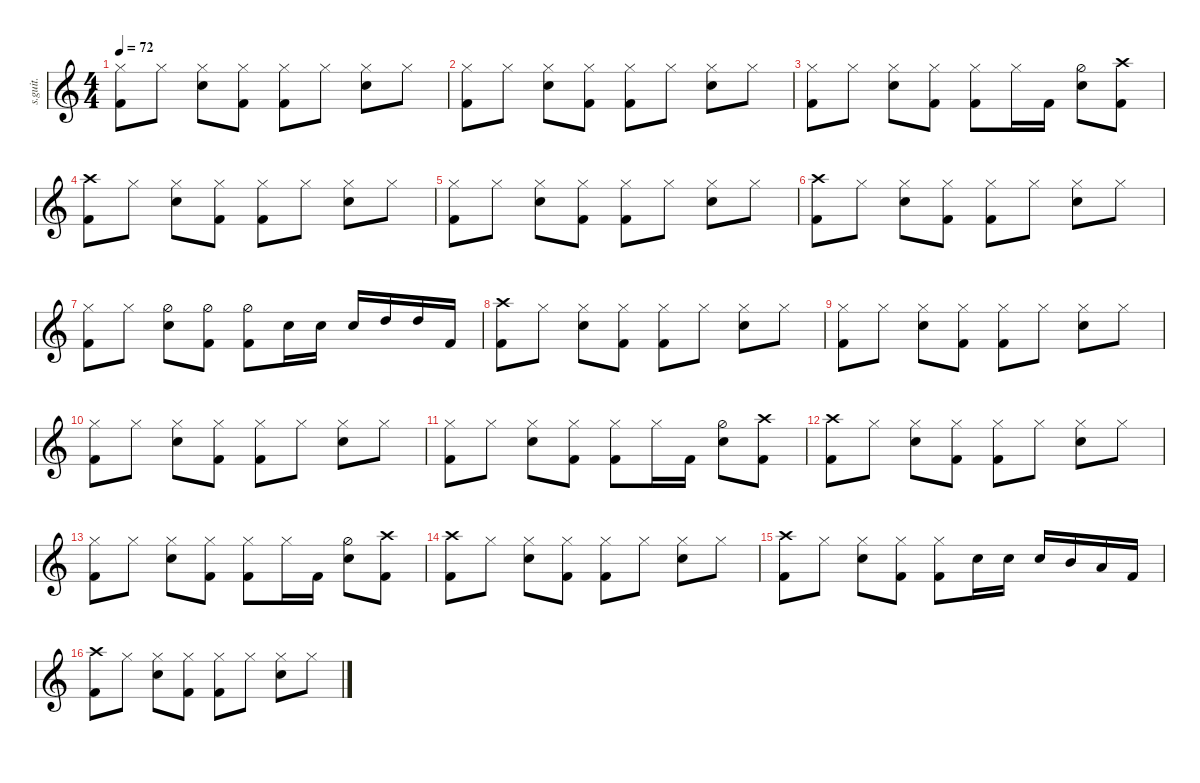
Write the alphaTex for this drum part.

\defaultSystemsLayout 4
\hideDynamics
\bracketExtendMode nobrackets
\track ("Ian Thomas" "s.guit.") {instrument percussion}
\staff {score}
\articulation defaults
\ts (4 4)
\tempo 72
\clef g2
\ks c
("Hi-Hat (closed)" "Kick (hit) 2").8{lyrics (0 "") lyrics (1 "") lyrics (2 "") lyrics (3 "") lyrics (4 "") dy f} "Hi-Hat (closed)".8{lyrics (0 "") lyrics (1 "") lyrics (2 "") lyrics (3 "") lyrics (4 "")} ("Hi-Hat (closed)" "Snare (hit) 2").8{lyrics (0 "") lyrics (1 "") lyrics (2 "") lyrics (3 "") lyrics (4 "")} ("Hi-Hat (closed)" "Kick (hit) 2").8{lyrics (0 "") lyrics (1 "") lyrics (2 "") lyrics (3 "") lyrics (4 "")} ("Hi-Hat (closed)" "Kick (hit) 2").8{lyrics (0 "") lyrics (1 "") lyrics (2 "") lyrics (3 "") lyrics (4 "")} "Hi-Hat (closed)".8{lyrics (0 "") lyrics (1 "") lyrics (2 "") lyrics (3 "") lyrics (4 "")} ("Hi-Hat (closed)" "Snare (hit) 2").8{lyrics (0 "") lyrics (1 "") lyrics (2 "") lyrics (3 "") lyrics (4 "")} "Hi-Hat (closed)".8{lyrics (0 "") lyrics (1 "") lyrics (2 "") lyrics (3 "") lyrics (4 "")} |
("Hi-Hat (closed)" "Kick (hit) 2").8{lyrics (0 "") lyrics (1 "") lyrics (2 "") lyrics (3 "") lyrics (4 "")} "Hi-Hat (closed)".8{lyrics (0 "") lyrics (1 "") lyrics (2 "") lyrics (3 "") lyrics (4 "")} ("Hi-Hat (closed)" "Snare (hit) 2").8{lyrics (0 "") lyrics (1 "") lyrics (2 "") lyrics (3 "") lyrics (4 "")} ("Hi-Hat (closed)" "Kick (hit) 2").8{lyrics (0 "") lyrics (1 "") lyrics (2 "") lyrics (3 "") lyrics (4 "")} ("Hi-Hat (closed)" "Kick (hit) 2").8{lyrics (0 "") lyrics (1 "") lyrics (2 "") lyrics (3 "") lyrics (4 "")} "Hi-Hat (closed)".8{lyrics (0 "") lyrics (1 "") lyrics (2 "") lyrics (3 "") lyrics (4 "")} ("Hi-Hat (closed)" "Snare (hit) 2").8{lyrics (0 "") lyrics (1 "") lyrics (2 "") lyrics (3 "") lyrics (4 "")} "Hi-Hat (closed)".8{lyrics (0 "") lyrics (1 "") lyrics (2 "") lyrics (3 "") lyrics (4 "")} |
("Hi-Hat (closed)" "Kick (hit) 2").8{lyrics (0 "") lyrics (1 "") lyrics (2 "") lyrics (3 "") lyrics (4 "")} "Hi-Hat (closed)".8{lyrics (0 "") lyrics (1 "") lyrics (2 "") lyrics (3 "") lyrics (4 "")} ("Hi-Hat (closed)" "Snare (hit) 2").8{lyrics (0 "") lyrics (1 "") lyrics (2 "") lyrics (3 "") lyrics (4 "")} ("Hi-Hat (closed)" "Kick (hit) 2").8{lyrics (0 "") lyrics (1 "") lyrics (2 "") lyrics (3 "") lyrics (4 "")} ("Hi-Hat (closed)" "Kick (hit) 2").8{lyrics (0 "") lyrics (1 "") lyrics (2 "") lyrics (3 "") lyrics (4 "")} "Hi-Hat (closed)".16{lyrics (0 "") lyrics (1 "") lyrics (2 "") lyrics (3 "") lyrics (4 "")} "Kick (hit) 2".16{lyrics (0 "") lyrics (1 "") lyrics (2 "") lyrics (3 "") lyrics (4 "")} ("Hi-Hat (half)" "Snare (hit) 2").8{lyrics (0 "") lyrics (1 "") lyrics (2 "") lyrics (3 "") lyrics (4 "")} ("Crash high (hit)" "Kick (hit) 2").8{lyrics (0 "") lyrics (1 "") lyrics (2 "") lyrics (3 "") lyrics (4 "")} |
("Crash high (hit)" "Kick (hit) 2").8{lyrics (0 "") lyrics (1 "") lyrics (2 "") lyrics (3 "") lyrics (4 "")} "Hi-Hat (closed)".8{lyrics (0 "") lyrics (1 "") lyrics (2 "") lyrics (3 "") lyrics (4 "")} ("Hi-Hat (closed)" "Snare (hit) 2").8{lyrics (0 "") lyrics (1 "") lyrics (2 "") lyrics (3 "") lyrics (4 "")} ("Hi-Hat (closed)" "Kick (hit) 2").8{lyrics (0 "") lyrics (1 "") lyrics (2 "") lyrics (3 "") lyrics (4 "")} ("Hi-Hat (closed)" "Kick (hit) 2").8{lyrics (0 "") lyrics (1 "") lyrics (2 "") lyrics (3 "") lyrics (4 "")} "Hi-Hat (closed)".8{lyrics (0 "") lyrics (1 "") lyrics (2 "") lyrics (3 "") lyrics (4 "")} ("Hi-Hat (closed)" "Snare (hit) 2").8{lyrics (0 "") lyrics (1 "") lyrics (2 "") lyrics (3 "") lyrics (4 "")} "Hi-Hat (closed)".8{lyrics (0 "") lyrics (1 "") lyrics (2 "") lyrics (3 "") lyrics (4 "")} |
("Hi-Hat (closed)" "Kick (hit) 2").8{lyrics (0 "") lyrics (1 "") lyrics (2 "") lyrics (3 "") lyrics (4 "")} "Hi-Hat (closed)".8{lyrics (0 "") lyrics (1 "") lyrics (2 "") lyrics (3 "") lyrics (4 "")} ("Hi-Hat (closed)" "Snare (hit) 2").8{lyrics (0 "") lyrics (1 "") lyrics (2 "") lyrics (3 "") lyrics (4 "")} ("Hi-Hat (closed)" "Kick (hit) 2").8{lyrics (0 "") lyrics (1 "") lyrics (2 "") lyrics (3 "") lyrics (4 "")} ("Hi-Hat (closed)" "Kick (hit) 2").8{lyrics (0 "") lyrics (1 "") lyrics (2 "") lyrics (3 "") lyrics (4 "")} "Hi-Hat (closed)".8{lyrics (0 "") lyrics (1 "") lyrics (2 "") lyrics (3 "") lyrics (4 "")} ("Hi-Hat (closed)" "Snare (hit) 2").8{lyrics (0 "") lyrics (1 "") lyrics (2 "") lyrics (3 "") lyrics (4 "")} "Hi-Hat (closed)".8{lyrics (0 "") lyrics (1 "") lyrics (2 "") lyrics (3 "") lyrics (4 "")} |
("Crash high (hit)" "Kick (hit) 2").8{lyrics (0 "") lyrics (1 "") lyrics (2 "") lyrics (3 "") lyrics (4 "")} "Hi-Hat (closed)".8{lyrics (0 "") lyrics (1 "") lyrics (2 "") lyrics (3 "") lyrics (4 "")} ("Hi-Hat (closed)" "Snare (hit) 2").8{lyrics (0 "") lyrics (1 "") lyrics (2 "") lyrics (3 "") lyrics (4 "")} ("Hi-Hat (closed)" "Kick (hit) 2").8{lyrics (0 "") lyrics (1 "") lyrics (2 "") lyrics (3 "") lyrics (4 "")} ("Hi-Hat (closed)" "Kick (hit) 2").8{lyrics (0 "") lyrics (1 "") lyrics (2 "") lyrics (3 "") lyrics (4 "")} "Hi-Hat (closed)".8{lyrics (0 "") lyrics (1 "") lyrics (2 "") lyrics (3 "") lyrics (4 "")} ("Hi-Hat (closed)" "Snare (hit) 2").8{lyrics (0 "") lyrics (1 "") lyrics (2 "") lyrics (3 "") lyrics (4 "")} "Hi-Hat (closed)".8{lyrics (0 "") lyrics (1 "") lyrics (2 "") lyrics (3 "") lyrics (4 "")} |
("Hi-Hat (closed)" "Kick (hit) 2").8{lyrics (0 "") lyrics (1 "") lyrics (2 "") lyrics (3 "") lyrics (4 "")} "Hi-Hat (closed)".8{lyrics (0 "") lyrics (1 "") lyrics (2 "") lyrics (3 "") lyrics (4 "")} ("Hi-Hat (half)" "Snare (hit) 2").8{lyrics (0 "") lyrics (1 "") lyrics (2 "") lyrics (3 "") lyrics (4 "")} ("Hi-Hat (half)" "Kick (hit) 2").8{lyrics (0 "") lyrics (1 "") lyrics (2 "") lyrics (3 "") lyrics (4 "")} ("Hi-Hat (half)" "Kick (hit) 2").8{lyrics (0 "") lyrics (1 "") lyrics (2 "") lyrics (3 "") lyrics (4 "")} "Snare (hit) 2".16{lyrics (0 "") lyrics (1 "") lyrics (2 "") lyrics (3 "") lyrics (4 "")} "Snare (hit) 2".16{lyrics (0 "") lyrics (1 "") lyrics (2 "") lyrics (3 "") lyrics (4 "")} "Snare (hit) 2".16{lyrics (0 "") lyrics (1 "") lyrics (2 "") lyrics (3 "") lyrics (4 "")} "High Tom (hit)".16{lyrics (0 "") lyrics (1 "") lyrics (2 "") lyrics (3 "") lyrics (4 "")} "High Tom (hit)".16{lyrics (0 "") lyrics (1 "") lyrics (2 "") lyrics (3 "") lyrics (4 "")} "Kick (hit) 2".16{lyrics (0 "") lyrics (1 "") lyrics (2 "") lyrics (3 "") lyrics (4 "")} |
("Crash high (hit)" "Kick (hit) 2").8{lyrics (0 "") lyrics (1 "") lyrics (2 "") lyrics (3 "") lyrics (4 "")} "Hi-Hat (closed)".8{lyrics (0 "") lyrics (1 "") lyrics (2 "") lyrics (3 "") lyrics (4 "")} ("Hi-Hat (closed)" "Snare (hit) 2").8{lyrics (0 "") lyrics (1 "") lyrics (2 "") lyrics (3 "") lyrics (4 "")} ("Hi-Hat (closed)" "Kick (hit) 2").8{lyrics (0 "") lyrics (1 "") lyrics (2 "") lyrics (3 "") lyrics (4 "")} ("Hi-Hat (closed)" "Kick (hit) 2").8{lyrics (0 "") lyrics (1 "") lyrics (2 "") lyrics (3 "") lyrics (4 "")} "Hi-Hat (closed)".8{lyrics (0 "") lyrics (1 "") lyrics (2 "") lyrics (3 "") lyrics (4 "")} ("Hi-Hat (closed)" "Snare (hit) 2").8{lyrics (0 "") lyrics (1 "") lyrics (2 "") lyrics (3 "") lyrics (4 "")} "Hi-Hat (closed)".8{lyrics (0 "") lyrics (1 "") lyrics (2 "") lyrics (3 "") lyrics (4 "")} |
("Hi-Hat (closed)" "Kick (hit) 2").8{lyrics (0 "") lyrics (1 "") lyrics (2 "") lyrics (3 "") lyrics (4 "")} "Hi-Hat (closed)".8{lyrics (0 "") lyrics (1 "") lyrics (2 "") lyrics (3 "") lyrics (4 "")} ("Hi-Hat (closed)" "Snare (hit) 2").8{lyrics (0 "") lyrics (1 "") lyrics (2 "") lyrics (3 "") lyrics (4 "")} ("Hi-Hat (closed)" "Kick (hit) 2").8{lyrics (0 "") lyrics (1 "") lyrics (2 "") lyrics (3 "") lyrics (4 "")} ("Hi-Hat (closed)" "Kick (hit) 2").8{lyrics (0 "") lyrics (1 "") lyrics (2 "") lyrics (3 "") lyrics (4 "")} "Hi-Hat (closed)".8{lyrics (0 "") lyrics (1 "") lyrics (2 "") lyrics (3 "") lyrics (4 "")} ("Hi-Hat (closed)" "Snare (hit) 2").8{lyrics (0 "") lyrics (1 "") lyrics (2 "") lyrics (3 "") lyrics (4 "")} "Hi-Hat (closed)".8{lyrics (0 "") lyrics (1 "") lyrics (2 "") lyrics (3 "") lyrics (4 "")} |
("Hi-Hat (closed)" "Kick (hit) 2").8{lyrics (0 "") lyrics (1 "") lyrics (2 "") lyrics (3 "") lyrics (4 "")} "Hi-Hat (closed)".8{lyrics (0 "") lyrics (1 "") lyrics (2 "") lyrics (3 "") lyrics (4 "")} ("Hi-Hat (closed)" "Snare (hit) 2").8{lyrics (0 "") lyrics (1 "") lyrics (2 "") lyrics (3 "") lyrics (4 "")} ("Hi-Hat (closed)" "Kick (hit) 2").8{lyrics (0 "") lyrics (1 "") lyrics (2 "") lyrics (3 "") lyrics (4 "")} ("Hi-Hat (closed)" "Kick (hit) 2").8{lyrics (0 "") lyrics (1 "") lyrics (2 "") lyrics (3 "") lyrics (4 "")} "Hi-Hat (closed)".8{lyrics (0 "") lyrics (1 "") lyrics (2 "") lyrics (3 "") lyrics (4 "")} ("Hi-Hat (closed)" "Snare (hit) 2").8{lyrics (0 "") lyrics (1 "") lyrics (2 "") lyrics (3 "") lyrics (4 "")} "Hi-Hat (closed)".8{lyrics (0 "") lyrics (1 "") lyrics (2 "") lyrics (3 "") lyrics (4 "")} |
("Hi-Hat (closed)" "Kick (hit) 2").8{lyrics (0 "") lyrics (1 "") lyrics (2 "") lyrics (3 "") lyrics (4 "")} "Hi-Hat (closed)".8{lyrics (0 "") lyrics (1 "") lyrics (2 "") lyrics (3 "") lyrics (4 "")} ("Hi-Hat (closed)" "Snare (hit) 2").8{lyrics (0 "") lyrics (1 "") lyrics (2 "") lyrics (3 "") lyrics (4 "")} ("Hi-Hat (closed)" "Kick (hit) 2").8{lyrics (0 "") lyrics (1 "") lyrics (2 "") lyrics (3 "") lyrics (4 "")} ("Hi-Hat (closed)" "Kick (hit) 2").8{lyrics (0 "") lyrics (1 "") lyrics (2 "") lyrics (3 "") lyrics (4 "")} "Hi-Hat (closed)".16{lyrics (0 "") lyrics (1 "") lyrics (2 "") lyrics (3 "") lyrics (4 "")} "Kick (hit) 2".16{lyrics (0 "") lyrics (1 "") lyrics (2 "") lyrics (3 "") lyrics (4 "")} ("Hi-Hat (half)" "Snare (hit) 2").8{lyrics (0 "") lyrics (1 "") lyrics (2 "") lyrics (3 "") lyrics (4 "")} ("Crash high (hit)" "Kick (hit) 2").8{lyrics (0 "") lyrics (1 "") lyrics (2 "") lyrics (3 "") lyrics (4 "")} |
("Crash high (hit)" "Kick (hit) 2").8{lyrics (0 "") lyrics (1 "") lyrics (2 "") lyrics (3 "") lyrics (4 "")} "Hi-Hat (closed)".8{lyrics (0 "") lyrics (1 "") lyrics (2 "") lyrics (3 "") lyrics (4 "")} ("Hi-Hat (closed)" "Snare (hit) 2").8{lyrics (0 "") lyrics (1 "") lyrics (2 "") lyrics (3 "") lyrics (4 "")} ("Hi-Hat (closed)" "Kick (hit) 2").8{lyrics (0 "") lyrics (1 "") lyrics (2 "") lyrics (3 "") lyrics (4 "")} ("Hi-Hat (closed)" "Kick (hit) 2").8{lyrics (0 "") lyrics (1 "") lyrics (2 "") lyrics (3 "") lyrics (4 "")} "Hi-Hat (closed)".8{lyrics (0 "") lyrics (1 "") lyrics (2 "") lyrics (3 "") lyrics (4 "")} ("Hi-Hat (closed)" "Snare (hit) 2").8{lyrics (0 "") lyrics (1 "") lyrics (2 "") lyrics (3 "") lyrics (4 "")} "Hi-Hat (closed)".8{lyrics (0 "") lyrics (1 "") lyrics (2 "") lyrics (3 "") lyrics (4 "")} |
("Hi-Hat (closed)" "Kick (hit) 2").8{lyrics (0 "") lyrics (1 "") lyrics (2 "") lyrics (3 "") lyrics (4 "")} "Hi-Hat (closed)".8{lyrics (0 "") lyrics (1 "") lyrics (2 "") lyrics (3 "") lyrics (4 "")} ("Hi-Hat (closed)" "Snare (hit) 2").8{lyrics (0 "") lyrics (1 "") lyrics (2 "") lyrics (3 "") lyrics (4 "")} ("Hi-Hat (closed)" "Kick (hit) 2").8{lyrics (0 "") lyrics (1 "") lyrics (2 "") lyrics (3 "") lyrics (4 "")} ("Hi-Hat (closed)" "Kick (hit) 2").8{lyrics (0 "") lyrics (1 "") lyrics (2 "") lyrics (3 "") lyrics (4 "")} "Hi-Hat (closed)".16{lyrics (0 "") lyrics (1 "") lyrics (2 "") lyrics (3 "") lyrics (4 "")} "Kick (hit) 2".16{lyrics (0 "") lyrics (1 "") lyrics (2 "") lyrics (3 "") lyrics (4 "")} ("Hi-Hat (half)" "Snare (hit) 2").8{lyrics (0 "") lyrics (1 "") lyrics (2 "") lyrics (3 "") lyrics (4 "")} ("Crash high (hit)" "Kick (hit) 2").8{lyrics (0 "") lyrics (1 "") lyrics (2 "") lyrics (3 "") lyrics (4 "")} |
("Crash high (hit)" "Kick (hit) 2").8{lyrics (0 "") lyrics (1 "") lyrics (2 "") lyrics (3 "") lyrics (4 "")} "Hi-Hat (closed)".8{lyrics (0 "") lyrics (1 "") lyrics (2 "") lyrics (3 "") lyrics (4 "")} ("Hi-Hat (closed)" "Snare (hit) 2").8{lyrics (0 "") lyrics (1 "") lyrics (2 "") lyrics (3 "") lyrics (4 "")} ("Hi-Hat (closed)" "Kick (hit) 2").8{lyrics (0 "") lyrics (1 "") lyrics (2 "") lyrics (3 "") lyrics (4 "")} ("Hi-Hat (closed)" "Kick (hit) 2").8{lyrics (0 "") lyrics (1 "") lyrics (2 "") lyrics (3 "") lyrics (4 "")} "Hi-Hat (closed)".8{lyrics (0 "") lyrics (1 "") lyrics (2 "") lyrics (3 "") lyrics (4 "")} ("Hi-Hat (closed)" "Snare (hit) 2").8{lyrics (0 "") lyrics (1 "") lyrics (2 "") lyrics (3 "") lyrics (4 "")} "Hi-Hat (closed)".8{lyrics (0 "") lyrics (1 "") lyrics (2 "") lyrics (3 "") lyrics (4 "")} |
("Crash high (hit)" "Kick (hit) 2").8{lyrics (0 "") lyrics (1 "") lyrics (2 "") lyrics (3 "") lyrics (4 "")} "Hi-Hat (closed)".8{lyrics (0 "") lyrics (1 "") lyrics (2 "") lyrics (3 "") lyrics (4 "")} ("Hi-Hat (closed)" "Snare (hit) 2").8{lyrics (0 "") lyrics (1 "") lyrics (2 "") lyrics (3 "") lyrics (4 "")} ("Hi-Hat (closed)" "Kick (hit) 2").8{lyrics (0 "") lyrics (1 "") lyrics (2 "") lyrics (3 "") lyrics (4 "")} ("Hi-Hat (closed)" "Kick (hit) 2").8{lyrics (0 "") lyrics (1 "") lyrics (2 "") lyrics (3 "") lyrics (4 "")} "Snare (hit) 2".16{lyrics (0 "") lyrics (1 "") lyrics (2 "") lyrics (3 "") lyrics (4 "")} "Snare (hit) 2".16{lyrics (0 "") lyrics (1 "") lyrics (2 "") lyrics (3 "") lyrics (4 "")} "Snare (hit) 2".16{lyrics (0 "") lyrics (1 "") lyrics (2 "") lyrics (3 "") lyrics (4 "")} "Mid Tom (hit)".16{lyrics (0 "") lyrics (1 "") lyrics (2 "") lyrics (3 "") lyrics (4 "")} "Low Floor Tom (hit)".16{lyrics (0 "") lyrics (1 "") lyrics (2 "") lyrics (3 "") lyrics (4 "")} "Kick (hit) 2".16{lyrics (0 "") lyrics (1 "") lyrics (2 "") lyrics (3 "") lyrics (4 "")} |
("Crash high (hit)" "Kick (hit) 2").8{lyrics (0 "") lyrics (1 "") lyrics (2 "") lyrics (3 "") lyrics (4 "")} "Hi-Hat (closed)".8{lyrics (0 "") lyrics (1 "") lyrics (2 "") lyrics (3 "") lyrics (4 "")} ("Hi-Hat (closed)" "Snare (hit) 2").8{lyrics (0 "") lyrics (1 "") lyrics (2 "") lyrics (3 "") lyrics (4 "")} ("Hi-Hat (closed)" "Kick (hit) 2").8{lyrics (0 "") lyrics (1 "") lyrics (2 "") lyrics (3 "") lyrics (4 "")} ("Hi-Hat (closed)" "Kick (hit) 2").8{lyrics (0 "") lyrics (1 "") lyrics (2 "") lyrics (3 "") lyrics (4 "")} "Hi-Hat (closed)".8{lyrics (0 "") lyrics (1 "") lyrics (2 "") lyrics (3 "") lyrics (4 "")} ("Hi-Hat (closed)" "Snare (hit) 2").8{lyrics (0 "") lyrics (1 "") lyrics (2 "") lyrics (3 "") lyrics (4 "")} "Hi-Hat (closed)".8{lyrics (0 "") lyrics (1 "") lyrics (2 "") lyrics (3 "") lyrics (4 "")}
